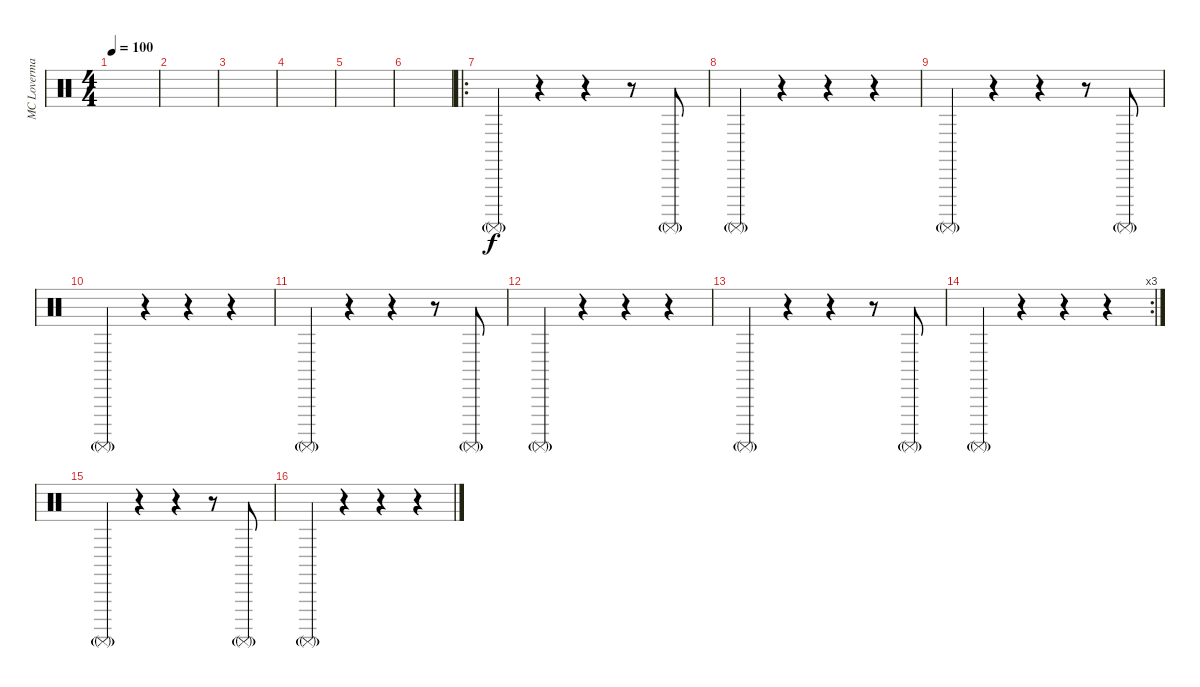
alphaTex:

\track ("MC Loverman" "MC Loverma") {instrument percussion}
\staff {score}
\articulation defaults
\ts (4 4)
\tempo 100
\clef neutral
\ks c
|
|
|
|
|
|
\ro "Surdo (mute)"{g}.4
r.4 r.4 r.8 "Surdo (mute)"{g}.8 |
"Surdo (mute)"{g}.4 r.4 r.4 r.4 |
"Surdo (mute)"{g}.4 r.4 r.4 r.8 "Surdo (mute)"{g}.8 |
"Surdo (mute)"{g}.4 r.4 r.4 r.4 |
"Surdo (mute)"{g}.4 r.4 r.4 r.8 "Surdo (mute)"{g}.8 |
"Surdo (mute)"{g}.4 r.4 r.4 r.4 |
"Surdo (mute)"{g}.4 r.4 r.4 r.8 "Surdo (mute)"{g}.8 |
\rc 3 "Surdo (mute)"{g}.4
r.4 r.4 r.4 |
"Surdo (mute)"{g}.4 r.4 r.4 r.8 "Surdo (mute)"{g}.8 |
"Surdo (mute)"{g}.4 r.4 r.4 r.4
